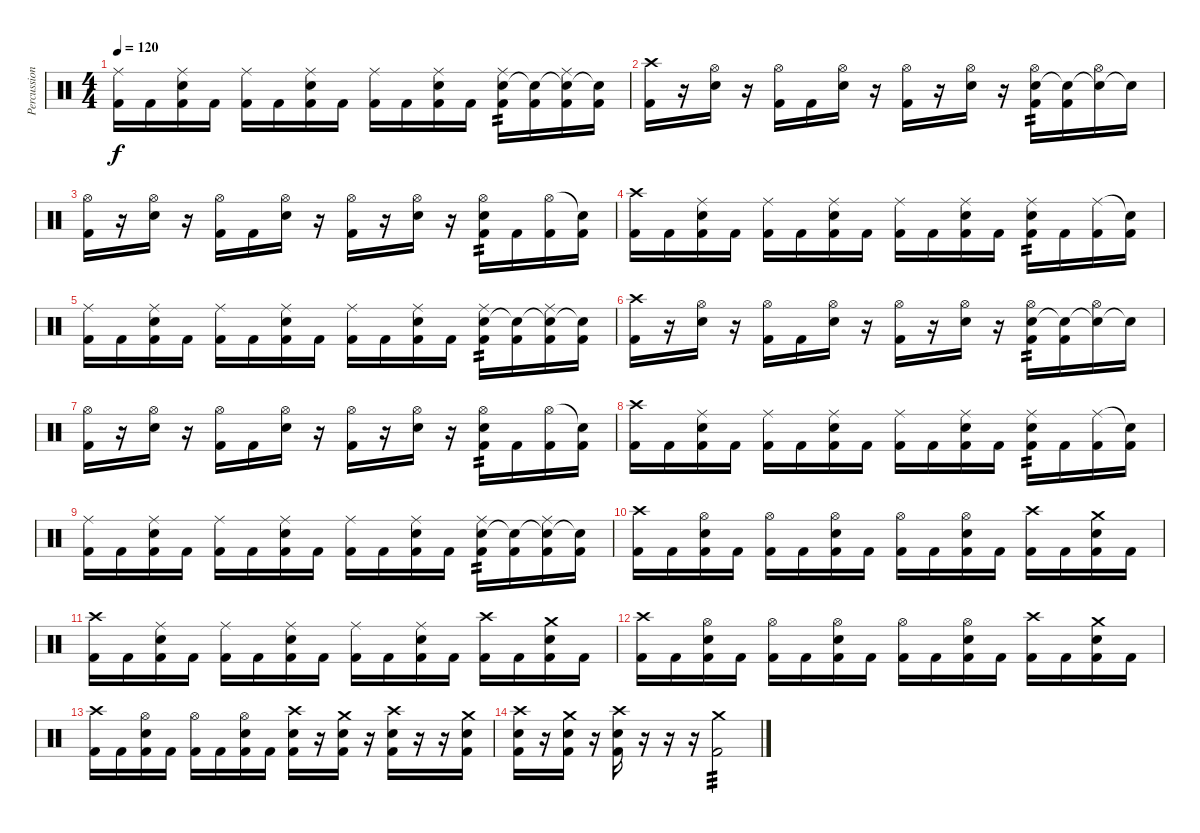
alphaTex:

\track ("Percussion" "Percussion") {instrument percussion}
\staff {score}
\articulation defaults
\ts (4 4)
\tempo 120
\clef neutral
\ks c
("Ride (middle)" "Kick (hit) 2").16{dy f} "Kick (hit) 2".16 ("Electric Snare (hit)" "Ride (middle)" "Kick (hit) 2").16 "Kick (hit) 2".16 ("Ride (middle)" "Kick (hit) 2").16 "Kick (hit) 2".16 ("Electric Snare (hit)" "Ride (middle)" "Kick (hit) 2").16 "Kick (hit) 2".16 ("Ride (middle)" "Kick (hit) 2").16 "Kick (hit) 2".16 ("Electric Snare (hit)" "Ride (middle)" "Kick (hit) 2").16 "Kick (hit) 2".16 ("Electric Snare (hit)" "Ride (middle)" "Kick (hit) 2").16{tp 2} ("Snare (hit)"{t} "Kick (hit) 2").16 ("Electric Snare (hit)"{t} "Ride (middle)" "Kick (hit) 2").16 ("Snare (hit)"{t} "Kick (hit) 2").16 |
("Crash high (hit)" "Kick (hit) 2").16 r.16 ("Electric Snare (hit)" "Hi-Hat (open)").16 r.16 ("Hi-Hat (open)" "Kick (hit) 2").16 "Kick (hit) 2".16 ("Electric Snare (hit)" "Hi-Hat (open)").16 r.16 ("Hi-Hat (open)" "Kick (hit) 2").16 r.16 ("Electric Snare (hit)" "Hi-Hat (open)").16 r.16 ("Electric Snare (hit)" "Hi-Hat (open)" "Kick (hit) 2").16{tp 2} ("Snare (hit)"{t} "Kick (hit) 2").16 ("Electric Snare (hit)"{t} "Hi-Hat (open)").16 "Snare (hit)"{t}.16 |
("Hi-Hat (open)" "Kick (hit) 2").16 r.16 ("Electric Snare (hit)" "Hi-Hat (open)").16 r.16 ("Hi-Hat (open)" "Kick (hit) 2").16 "Kick (hit) 2".16 ("Electric Snare (hit)" "Hi-Hat (open)").16 r.16 ("Hi-Hat (open)" "Kick (hit) 2").16 r.16 ("Electric Snare (hit)" "Hi-Hat (open)").16 r.16 ("Electric Snare (hit)" "Hi-Hat (open)" "Kick (hit) 2").16{tp 2} "Kick (hit) 2".16 ("Hi-Hat (open)" "Kick (hit) 2").16 ("Snare (hit)"{t} "Kick (hit) 2").16 |
("Crash high (hit)" "Kick (hit) 2").16 "Kick (hit) 2".16 ("Electric Snare (hit)" "Ride (middle)" "Kick (hit) 2").16 "Kick (hit) 2".16 ("Ride (middle)" "Kick (hit) 2").16 "Kick (hit) 2".16 ("Electric Snare (hit)" "Ride (middle)" "Kick (hit) 2").16 "Kick (hit) 2".16 ("Ride (middle)" "Kick (hit) 2").16 "Kick (hit) 2".16 ("Electric Snare (hit)" "Ride (middle)" "Kick (hit) 2").16 "Kick (hit) 2".16 ("Electric Snare (hit)" "Ride (middle)" "Kick (hit) 2").16{tp 2} "Kick (hit) 2".16 ("Ride (middle)" "Kick (hit) 2").16 ("Snare (hit)"{t} "Kick (hit) 2").16 |
("Ride (middle)" "Kick (hit) 2").16 "Kick (hit) 2".16 ("Electric Snare (hit)" "Ride (middle)" "Kick (hit) 2").16 "Kick (hit) 2".16 ("Ride (middle)" "Kick (hit) 2").16 "Kick (hit) 2".16 ("Electric Snare (hit)" "Ride (middle)" "Kick (hit) 2").16 "Kick (hit) 2".16 ("Ride (middle)" "Kick (hit) 2").16 "Kick (hit) 2".16 ("Electric Snare (hit)" "Ride (middle)" "Kick (hit) 2").16 "Kick (hit) 2".16 ("Electric Snare (hit)" "Ride (middle)" "Kick (hit) 2").16{tp 2} ("Snare (hit)"{t} "Kick (hit) 2").16 ("Electric Snare (hit)"{t} "Ride (middle)" "Kick (hit) 2").16 ("Snare (hit)"{t} "Kick (hit) 2").16 |
("Crash high (hit)" "Kick (hit) 2").16 r.16 ("Electric Snare (hit)" "Hi-Hat (open)").16 r.16 ("Hi-Hat (open)" "Kick (hit) 2").16 "Kick (hit) 2".16 ("Electric Snare (hit)" "Hi-Hat (open)").16 r.16 ("Hi-Hat (open)" "Kick (hit) 2").16 r.16 ("Electric Snare (hit)" "Hi-Hat (open)").16 r.16 ("Electric Snare (hit)" "Hi-Hat (open)" "Kick (hit) 2").16{tp 2} ("Snare (hit)"{t} "Kick (hit) 2").16 ("Electric Snare (hit)"{t} "Hi-Hat (open)").16 "Snare (hit)"{t}.16 |
("Hi-Hat (open)" "Kick (hit) 2").16 r.16 ("Electric Snare (hit)" "Hi-Hat (open)").16 r.16 ("Hi-Hat (open)" "Kick (hit) 2").16 "Kick (hit) 2".16 ("Electric Snare (hit)" "Hi-Hat (open)").16 r.16 ("Hi-Hat (open)" "Kick (hit) 2").16 r.16 ("Electric Snare (hit)" "Hi-Hat (open)").16 r.16 ("Electric Snare (hit)" "Hi-Hat (open)" "Kick (hit) 2").16{tp 2} "Kick (hit) 2".16 ("Hi-Hat (open)" "Kick (hit) 2").16 ("Snare (hit)"{t} "Kick (hit) 2").16 |
("Crash high (hit)" "Kick (hit) 2").16 "Kick (hit) 2".16 ("Electric Snare (hit)" "Ride (middle)" "Kick (hit) 2").16 "Kick (hit) 2".16 ("Ride (middle)" "Kick (hit) 2").16 "Kick (hit) 2".16 ("Electric Snare (hit)" "Ride (middle)" "Kick (hit) 2").16 "Kick (hit) 2".16 ("Ride (middle)" "Kick (hit) 2").16 "Kick (hit) 2".16 ("Electric Snare (hit)" "Ride (middle)" "Kick (hit) 2").16 "Kick (hit) 2".16 ("Electric Snare (hit)" "Ride (middle)" "Kick (hit) 2").16{tp 2} "Kick (hit) 2".16 ("Ride (middle)" "Kick (hit) 2").16 ("Snare (hit)"{t} "Kick (hit) 2").16 |
("Ride (middle)" "Kick (hit) 2").16 "Kick (hit) 2".16 ("Electric Snare (hit)" "Ride (middle)" "Kick (hit) 2").16 "Kick (hit) 2".16 ("Ride (middle)" "Kick (hit) 2").16 "Kick (hit) 2".16 ("Electric Snare (hit)" "Ride (middle)" "Kick (hit) 2").16 "Kick (hit) 2".16 ("Ride (middle)" "Kick (hit) 2").16 "Kick (hit) 2".16 ("Electric Snare (hit)" "Ride (middle)" "Kick (hit) 2").16 "Kick (hit) 2".16 ("Electric Snare (hit)" "Ride (middle)" "Kick (hit) 2").16{tp 2} ("Snare (hit)"{t} "Kick (hit) 2").16 ("Electric Snare (hit)"{t} "Ride (middle)" "Kick (hit) 2").16 ("Snare (hit)"{t} "Kick (hit) 2").16 |
("Crash high (hit)" "Kick (hit) 2").16 "Kick (hit) 2".16 ("Electric Snare (hit)" "Hi-Hat (open)" "Kick (hit) 2").16 "Kick (hit) 2".16 ("Hi-Hat (open)" "Kick (hit) 2").16 "Kick (hit) 2".16 ("Electric Snare (hit)" "Hi-Hat (open)" "Kick (hit) 2").16 "Kick (hit) 2".16 ("Hi-Hat (open)" "Kick (hit) 2").16 "Kick (hit) 2".16 ("Electric Snare (hit)" "Hi-Hat (open)" "Kick (hit) 2").16 "Kick (hit) 2".16 ("Crash high (hit)" "Kick (hit) 2").16 "Kick (hit) 2".16 ("Electric Snare (hit)" "Crash medium (hit)" "Kick (hit) 2").16 "Kick (hit) 2".16 |
("Crash high (hit)" "Kick (hit) 2").16 "Kick (hit) 2".16 ("Electric Snare (hit)" "Ride (middle)" "Kick (hit) 2").16 "Kick (hit) 2".16 ("Ride (middle)" "Kick (hit) 2").16 "Kick (hit) 2".16 ("Electric Snare (hit)" "Ride (middle)" "Kick (hit) 2").16 "Kick (hit) 2".16 ("Ride (middle)" "Kick (hit) 2").16 "Kick (hit) 2".16 ("Electric Snare (hit)" "Ride (middle)" "Kick (hit) 2").16 "Kick (hit) 2".16 ("Crash high (hit)" "Kick (hit) 2").16 "Kick (hit) 2".16 ("Electric Snare (hit)" "Crash medium (hit)" "Kick (hit) 2").16 "Kick (hit) 2".16 |
("Crash high (hit)" "Kick (hit) 2").16 "Kick (hit) 2".16 ("Electric Snare (hit)" "Hi-Hat (open)" "Kick (hit) 2").16 "Kick (hit) 2".16 ("Hi-Hat (open)" "Kick (hit) 2").16 "Kick (hit) 2".16 ("Electric Snare (hit)" "Hi-Hat (open)" "Kick (hit) 2").16 "Kick (hit) 2".16 ("Hi-Hat (open)" "Kick (hit) 2").16 "Kick (hit) 2".16 ("Electric Snare (hit)" "Hi-Hat (open)" "Kick (hit) 2").16 "Kick (hit) 2".16 ("Crash high (hit)" "Kick (hit) 2").16 "Kick (hit) 2".16 ("Electric Snare (hit)" "Crash medium (hit)" "Kick (hit) 2").16 "Kick (hit) 2".16 |
("Crash high (hit)" "Kick (hit) 2").16 "Kick (hit) 2".16 ("Electric Snare (hit)" "Hi-Hat (open)" "Kick (hit) 2").16 "Kick (hit) 2".16 ("Hi-Hat (open)" "Kick (hit) 2").16 "Kick (hit) 2".16 ("Electric Snare (hit)" "Hi-Hat (open)" "Kick (hit) 2").16 "Kick (hit) 2".16 ("Crash high (hit)" "Electric Snare (hit)" "Kick (hit) 2").16 r.16 ("Crash medium (hit)" "Electric Snare (hit)" "Kick (hit) 2").16 r.16 ("Crash high (hit)" "Electric Snare (hit)" "Kick (hit) 2").16 r.16 r.16 ("Crash medium (hit)" "Electric Snare (hit)" "Kick (hit) 2").16 |
("Crash high (hit)" "Electric Snare (hit)" "Kick (hit) 2").16 r.16 ("Crash medium (hit)" "Electric Snare (hit)" "Kick (hit) 2").16 r.16 ("Crash high (hit)" "Electric Snare (hit)" "Kick (hit) 2").16 r.16{volume 0} r.16 r.16{volume 13} ("Crash medium (hit)" "Kick (hit) 2").2{tp 3}
